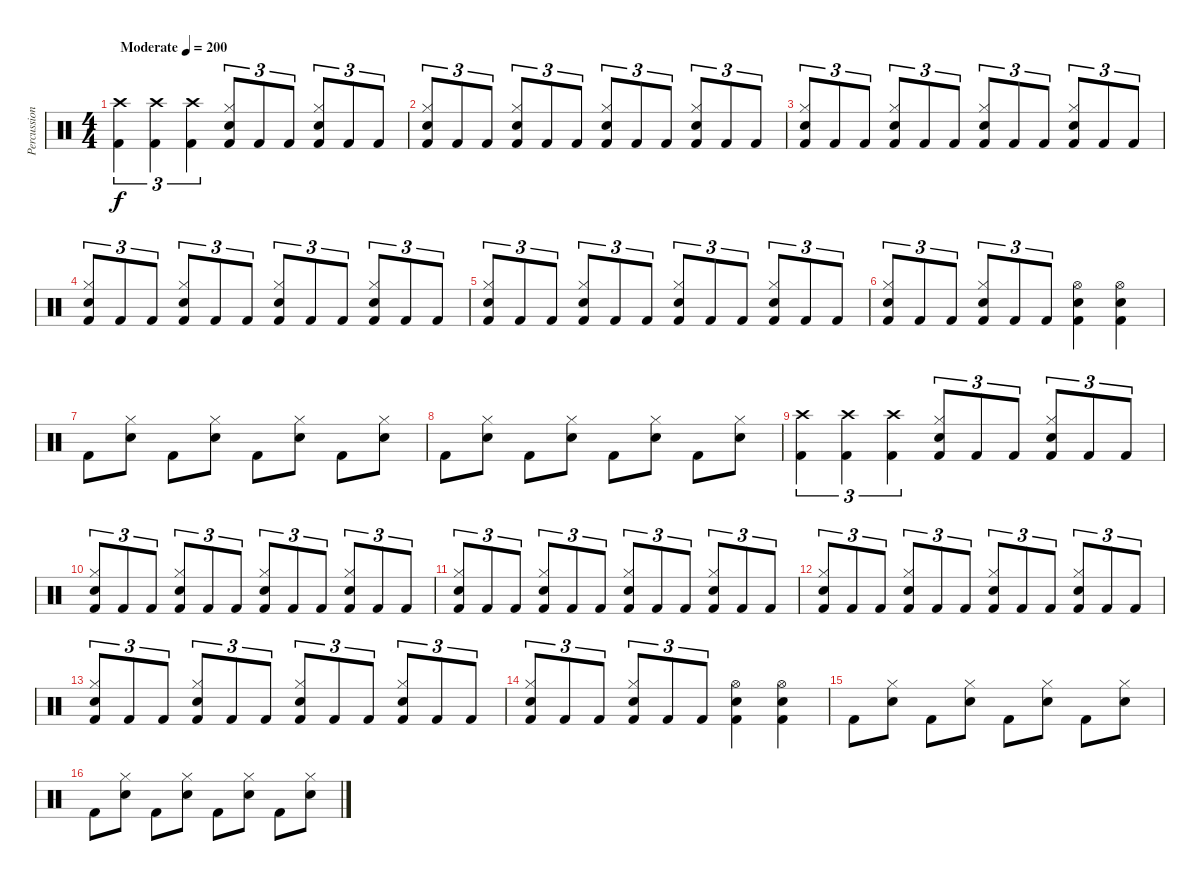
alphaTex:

\track ("Percussion" "Percussion") {instrument percussion}
\staff {score}
\articulation defaults
\ts (4 4)
\tempo (200 "Moderate")
\clef neutral
\ks c
("Crash high (hit)" "Kick (hit) 2").4{tu (3 2) dy f} ("Crash high (hit)" "Kick (hit) 2").4{tu (3 2)} ("Crash high (hit)" "Kick (hit) 2").4{tu (3 2)} ("Hi-Hat (closed)" "Snare (hit) 2" "Kick (hit) 2").8{tu (3 2)} "Kick (hit) 2".8{tu (3 2)} "Kick (hit) 2".8{tu (3 2)} ("Hi-Hat (closed)" "Snare (hit) 2" "Kick (hit) 2").8{tu (3 2)} "Kick (hit) 2".8{tu (3 2)} "Kick (hit) 2".8{tu (3 2)} |
("Hi-Hat (closed)" "Snare (hit) 2" "Kick (hit) 2").8{tu (3 2)} "Kick (hit) 2".8{tu (3 2)} "Kick (hit) 2".8{tu (3 2)} ("Hi-Hat (closed)" "Snare (hit) 2" "Kick (hit) 2").8{tu (3 2)} "Kick (hit) 2".8{tu (3 2)} "Kick (hit) 2".8{tu (3 2)} ("Hi-Hat (closed)" "Snare (hit) 2" "Kick (hit) 2").8{tu (3 2)} "Kick (hit) 2".8{tu (3 2)} "Kick (hit) 2".8{tu (3 2)} ("Hi-Hat (closed)" "Snare (hit) 2" "Kick (hit) 2").8{tu (3 2)} "Kick (hit) 2".8{tu (3 2)} "Kick (hit) 2".8{tu (3 2)} |
("Hi-Hat (closed)" "Snare (hit) 2" "Kick (hit) 2").8{tu (3 2)} "Kick (hit) 2".8{tu (3 2)} "Kick (hit) 2".8{tu (3 2)} ("Hi-Hat (closed)" "Snare (hit) 2" "Kick (hit) 2").8{tu (3 2)} "Kick (hit) 2".8{tu (3 2)} "Kick (hit) 2".8{tu (3 2)} ("Hi-Hat (closed)" "Snare (hit) 2" "Kick (hit) 2").8{tu (3 2)} "Kick (hit) 2".8{tu (3 2)} "Kick (hit) 2".8{tu (3 2)} ("Hi-Hat (closed)" "Snare (hit) 2" "Kick (hit) 2").8{tu (3 2)} "Kick (hit) 2".8{tu (3 2)} "Kick (hit) 2".8{tu (3 2)} |
("Hi-Hat (closed)" "Snare (hit) 2" "Kick (hit) 2").8{tu (3 2)} "Kick (hit) 2".8{tu (3 2)} "Kick (hit) 2".8{tu (3 2)} ("Hi-Hat (closed)" "Snare (hit) 2" "Kick (hit) 2").8{tu (3 2)} "Kick (hit) 2".8{tu (3 2)} "Kick (hit) 2".8{tu (3 2)} ("Hi-Hat (closed)" "Snare (hit) 2" "Kick (hit) 2").8{tu (3 2)} "Kick (hit) 2".8{tu (3 2)} "Kick (hit) 2".8{tu (3 2)} ("Hi-Hat (closed)" "Snare (hit) 2" "Kick (hit) 2").8{tu (3 2)} "Kick (hit) 2".8{tu (3 2)} "Kick (hit) 2".8{tu (3 2)} |
("Hi-Hat (closed)" "Snare (hit) 2" "Kick (hit) 2").8{tu (3 2)} "Kick (hit) 2".8{tu (3 2)} "Kick (hit) 2".8{tu (3 2)} ("Hi-Hat (closed)" "Snare (hit) 2" "Kick (hit) 2").8{tu (3 2)} "Kick (hit) 2".8{tu (3 2)} "Kick (hit) 2".8{tu (3 2)} ("Hi-Hat (closed)" "Snare (hit) 2" "Kick (hit) 2").8{tu (3 2)} "Kick (hit) 2".8{tu (3 2)} "Kick (hit) 2".8{tu (3 2)} ("Hi-Hat (closed)" "Snare (hit) 2" "Kick (hit) 2").8{tu (3 2)} "Kick (hit) 2".8{tu (3 2)} "Kick (hit) 2".8{tu (3 2)} |
("Hi-Hat (closed)" "Snare (hit) 2" "Kick (hit) 2").8{tu (3 2)} "Kick (hit) 2".8{tu (3 2)} "Kick (hit) 2".8{tu (3 2)} ("Hi-Hat (closed)" "Snare (hit) 2" "Kick (hit) 2").8{tu (3 2)} "Kick (hit) 2".8{tu (3 2)} "Kick (hit) 2".8{tu (3 2)} ("Hi-Hat (open)" "Snare (hit) 2" "Kick (hit) 2").4 ("Hi-Hat (open)" "Snare (hit) 2" "Kick (hit) 2").4 |
"Kick (hit) 2".8 ("Hi-Hat (closed)" "Snare (hit) 2").8 "Kick (hit) 2".8 ("Hi-Hat (closed)" "Snare (hit) 2").8 "Kick (hit) 2".8 ("Hi-Hat (closed)" "Snare (hit) 2").8 "Kick (hit) 2".8 ("Hi-Hat (closed)" "Snare (hit) 2").8 |
"Kick (hit) 2".8 ("Hi-Hat (closed)" "Snare (hit) 2").8 "Kick (hit) 2".8 ("Hi-Hat (closed)" "Snare (hit) 2").8 "Kick (hit) 2".8 ("Hi-Hat (closed)" "Snare (hit) 2").8 "Kick (hit) 2".8 ("Hi-Hat (closed)" "Snare (hit) 2").8 |
("Crash high (hit)" "Kick (hit) 2").4{tu (3 2)} ("Crash high (hit)" "Kick (hit) 2").4{tu (3 2)} ("Crash high (hit)" "Kick (hit) 2").4{tu (3 2)} ("Hi-Hat (closed)" "Snare (hit) 2" "Kick (hit) 2").8{tu (3 2)} "Kick (hit) 2".8{tu (3 2)} "Kick (hit) 2".8{tu (3 2)} ("Hi-Hat (closed)" "Snare (hit) 2" "Kick (hit) 2").8{tu (3 2)} "Kick (hit) 2".8{tu (3 2)} "Kick (hit) 2".8{tu (3 2)} |
("Hi-Hat (closed)" "Snare (hit) 2" "Kick (hit) 2").8{tu (3 2)} "Kick (hit) 2".8{tu (3 2)} "Kick (hit) 2".8{tu (3 2)} ("Hi-Hat (closed)" "Snare (hit) 2" "Kick (hit) 2").8{tu (3 2)} "Kick (hit) 2".8{tu (3 2)} "Kick (hit) 2".8{tu (3 2)} ("Hi-Hat (closed)" "Snare (hit) 2" "Kick (hit) 2").8{tu (3 2)} "Kick (hit) 2".8{tu (3 2)} "Kick (hit) 2".8{tu (3 2)} ("Hi-Hat (closed)" "Snare (hit) 2" "Kick (hit) 2").8{tu (3 2)} "Kick (hit) 2".8{tu (3 2)} "Kick (hit) 2".8{tu (3 2)} |
("Hi-Hat (closed)" "Snare (hit) 2" "Kick (hit) 2").8{tu (3 2)} "Kick (hit) 2".8{tu (3 2)} "Kick (hit) 2".8{tu (3 2)} ("Hi-Hat (closed)" "Snare (hit) 2" "Kick (hit) 2").8{tu (3 2)} "Kick (hit) 2".8{tu (3 2)} "Kick (hit) 2".8{tu (3 2)} ("Hi-Hat (closed)" "Snare (hit) 2" "Kick (hit) 2").8{tu (3 2)} "Kick (hit) 2".8{tu (3 2)} "Kick (hit) 2".8{tu (3 2)} ("Hi-Hat (closed)" "Snare (hit) 2" "Kick (hit) 2").8{tu (3 2)} "Kick (hit) 2".8{tu (3 2)} "Kick (hit) 2".8{tu (3 2)} |
("Hi-Hat (closed)" "Snare (hit) 2" "Kick (hit) 2").8{tu (3 2)} "Kick (hit) 2".8{tu (3 2)} "Kick (hit) 2".8{tu (3 2)} ("Hi-Hat (closed)" "Snare (hit) 2" "Kick (hit) 2").8{tu (3 2)} "Kick (hit) 2".8{tu (3 2)} "Kick (hit) 2".8{tu (3 2)} ("Hi-Hat (closed)" "Snare (hit) 2" "Kick (hit) 2").8{tu (3 2)} "Kick (hit) 2".8{tu (3 2)} "Kick (hit) 2".8{tu (3 2)} ("Hi-Hat (closed)" "Snare (hit) 2" "Kick (hit) 2").8{tu (3 2)} "Kick (hit) 2".8{tu (3 2)} "Kick (hit) 2".8{tu (3 2)} |
("Hi-Hat (closed)" "Snare (hit) 2" "Kick (hit) 2").8{tu (3 2)} "Kick (hit) 2".8{tu (3 2)} "Kick (hit) 2".8{tu (3 2)} ("Hi-Hat (closed)" "Snare (hit) 2" "Kick (hit) 2").8{tu (3 2)} "Kick (hit) 2".8{tu (3 2)} "Kick (hit) 2".8{tu (3 2)} ("Hi-Hat (closed)" "Snare (hit) 2" "Kick (hit) 2").8{tu (3 2)} "Kick (hit) 2".8{tu (3 2)} "Kick (hit) 2".8{tu (3 2)} ("Hi-Hat (closed)" "Snare (hit) 2" "Kick (hit) 2").8{tu (3 2)} "Kick (hit) 2".8{tu (3 2)} "Kick (hit) 2".8{tu (3 2)} |
("Hi-Hat (closed)" "Snare (hit) 2" "Kick (hit) 2").8{tu (3 2)} "Kick (hit) 2".8{tu (3 2)} "Kick (hit) 2".8{tu (3 2)} ("Hi-Hat (closed)" "Snare (hit) 2" "Kick (hit) 2").8{tu (3 2)} "Kick (hit) 2".8{tu (3 2)} "Kick (hit) 2".8{tu (3 2)} ("Hi-Hat (open)" "Snare (hit) 2" "Kick (hit) 2").4 ("Hi-Hat (open)" "Snare (hit) 2" "Kick (hit) 2").4 |
"Kick (hit) 2".8 ("Hi-Hat (closed)" "Snare (hit) 2").8 "Kick (hit) 2".8 ("Hi-Hat (closed)" "Snare (hit) 2").8 "Kick (hit) 2".8 ("Hi-Hat (closed)" "Snare (hit) 2").8 "Kick (hit) 2".8 ("Hi-Hat (closed)" "Snare (hit) 2").8 |
"Kick (hit) 2".8 ("Hi-Hat (closed)" "Snare (hit) 2").8 "Kick (hit) 2".8 ("Hi-Hat (closed)" "Snare (hit) 2").8 "Kick (hit) 2".8 ("Hi-Hat (closed)" "Snare (hit) 2").8 "Kick (hit) 2".8 ("Hi-Hat (closed)" "Snare (hit) 2").8
